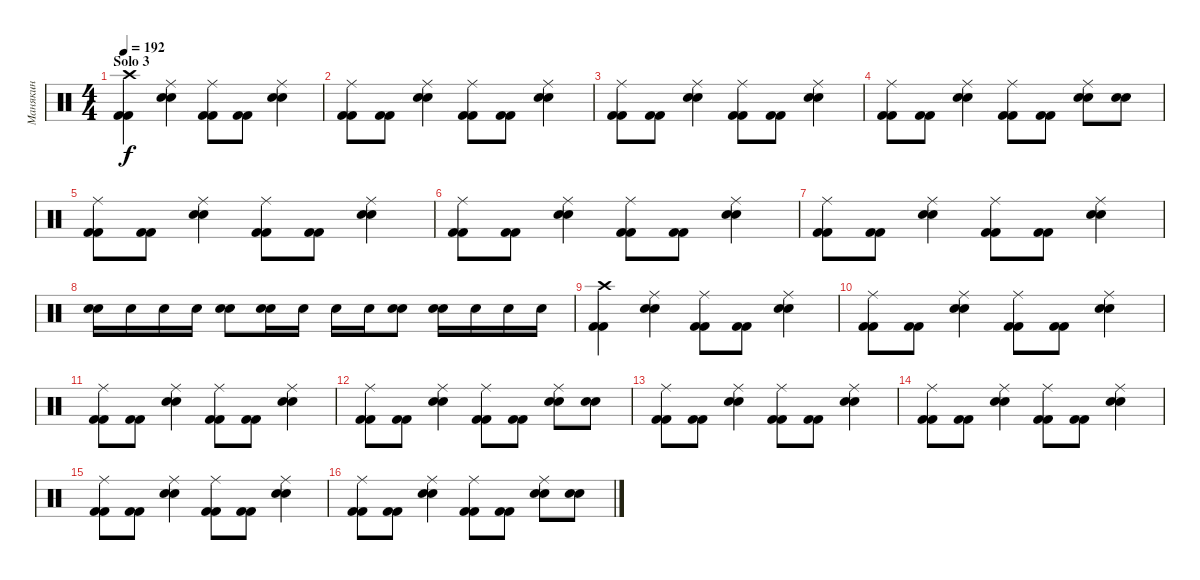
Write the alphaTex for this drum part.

\track ("Манякин" "Манякин") {instrument percussion}
\staff {score}
\articulation defaults
\ts (4 4)
\section ("" "Solo 3")
\tempo 192
\clef neutral
\ks c
("Crash high (hit)" "Kick (hit) 2" "Kick (hit) 2").4{dy f} ("Ride (middle)" "Electric Snare (hit)" "Electric Snare (hit)").4 ("Ride (middle)" "Kick (hit) 2" "Kick (hit) 2").8 ("Kick (hit) 2" "Kick (hit) 2").8 ("Ride (middle)" "Electric Snare (hit)" "Electric Snare (hit)").4 |
("Ride (middle)" "Kick (hit) 2" "Kick (hit) 2").8 ("Kick (hit) 2" "Kick (hit) 2").8 ("Ride (middle)" "Electric Snare (hit)" "Electric Snare (hit)").4 ("Ride (middle)" "Kick (hit) 2" "Kick (hit) 2").8 ("Kick (hit) 2" "Kick (hit) 2").8 ("Ride (middle)" "Electric Snare (hit)" "Electric Snare (hit)").4 |
("Ride (middle)" "Kick (hit) 2" "Kick (hit) 2").8 ("Kick (hit) 2" "Kick (hit) 2").8 ("Ride (middle)" "Electric Snare (hit)" "Electric Snare (hit)").4 ("Ride (middle)" "Kick (hit) 2" "Kick (hit) 2").8 ("Kick (hit) 2" "Kick (hit) 2").8 ("Ride (middle)" "Electric Snare (hit)" "Electric Snare (hit)").4 |
("Ride (middle)" "Kick (hit) 2" "Kick (hit) 2").8 ("Kick (hit) 2" "Kick (hit) 2").8 ("Ride (middle)" "Electric Snare (hit)" "Electric Snare (hit)").4 ("Ride (middle)" "Kick (hit) 2" "Kick (hit) 2").8 ("Kick (hit) 2" "Kick (hit) 2").8 ("Ride (middle)" "Electric Snare (hit)" "Electric Snare (hit)").8 ("Electric Snare (hit)" "Electric Snare (hit)").8 |
("Ride (middle)" "Kick (hit) 2" "Kick (hit) 2").8 ("Kick (hit) 2" "Kick (hit) 2").8 ("Ride (middle)" "Electric Snare (hit)" "Electric Snare (hit)").4 ("Ride (middle)" "Kick (hit) 2" "Kick (hit) 2").8 ("Kick (hit) 2" "Kick (hit) 2").8 ("Ride (middle)" "Electric Snare (hit)" "Electric Snare (hit)").4 |
("Ride (middle)" "Kick (hit) 2" "Kick (hit) 2").8 ("Kick (hit) 2" "Kick (hit) 2").8 ("Ride (middle)" "Electric Snare (hit)" "Electric Snare (hit)").4 ("Ride (middle)" "Kick (hit) 2" "Kick (hit) 2").8 ("Kick (hit) 2" "Kick (hit) 2").8 ("Ride (middle)" "Electric Snare (hit)" "Electric Snare (hit)").4 |
("Ride (middle)" "Kick (hit) 2" "Kick (hit) 2").8 ("Kick (hit) 2" "Kick (hit) 2").8 ("Ride (middle)" "Electric Snare (hit)" "Electric Snare (hit)").4 ("Ride (middle)" "Kick (hit) 2" "Kick (hit) 2").8 ("Kick (hit) 2" "Kick (hit) 2").8 ("Ride (middle)" "Electric Snare (hit)" "Electric Snare (hit)").4 |
("Electric Snare (hit)" "Electric Snare (hit)").16 "Electric Snare (hit)".16 "Electric Snare (hit)".16 "Electric Snare (hit)".16 ("Electric Snare (hit)" "Electric Snare (hit)").8 ("Electric Snare (hit)" "Electric Snare (hit)").16 "Electric Snare (hit)".16 "Electric Snare (hit)".16 "Electric Snare (hit)".16 ("Electric Snare (hit)" "Electric Snare (hit)").8 ("Electric Snare (hit)" "Electric Snare (hit)").16 "Electric Snare (hit)".16 "Electric Snare (hit)".16 "Electric Snare (hit)".16 |
("Crash high (hit)" "Kick (hit) 2" "Kick (hit) 2").4 ("Ride (middle)" "Electric Snare (hit)" "Electric Snare (hit)").4 ("Ride (middle)" "Kick (hit) 2" "Kick (hit) 2").8 ("Kick (hit) 2" "Kick (hit) 2").8 ("Ride (middle)" "Electric Snare (hit)" "Electric Snare (hit)").4 |
("Ride (middle)" "Kick (hit) 2" "Kick (hit) 2").8 ("Kick (hit) 2" "Kick (hit) 2").8 ("Ride (middle)" "Electric Snare (hit)" "Electric Snare (hit)").4 ("Ride (middle)" "Kick (hit) 2" "Kick (hit) 2").8 ("Kick (hit) 2" "Kick (hit) 2").8 ("Ride (middle)" "Electric Snare (hit)" "Electric Snare (hit)").4 |
("Ride (middle)" "Kick (hit) 2" "Kick (hit) 2").8 ("Kick (hit) 2" "Kick (hit) 2").8 ("Ride (middle)" "Electric Snare (hit)" "Electric Snare (hit)").4 ("Ride (middle)" "Kick (hit) 2" "Kick (hit) 2").8 ("Kick (hit) 2" "Kick (hit) 2").8 ("Ride (middle)" "Electric Snare (hit)" "Electric Snare (hit)").4 |
("Ride (middle)" "Kick (hit) 2" "Kick (hit) 2").8 ("Kick (hit) 2" "Kick (hit) 2").8 ("Ride (middle)" "Electric Snare (hit)" "Electric Snare (hit)").4 ("Ride (middle)" "Kick (hit) 2" "Kick (hit) 2").8 ("Kick (hit) 2" "Kick (hit) 2").8 ("Ride (middle)" "Electric Snare (hit)" "Electric Snare (hit)").8 ("Electric Snare (hit)" "Electric Snare (hit)").8 |
("Ride (middle)" "Kick (hit) 2" "Kick (hit) 2").8 ("Kick (hit) 2" "Kick (hit) 2").8 ("Ride (middle)" "Electric Snare (hit)" "Electric Snare (hit)").4 ("Ride (middle)" "Kick (hit) 2" "Kick (hit) 2").8 ("Kick (hit) 2" "Kick (hit) 2").8 ("Ride (middle)" "Electric Snare (hit)" "Electric Snare (hit)").4 |
("Ride (middle)" "Kick (hit) 2" "Kick (hit) 2").8 ("Kick (hit) 2" "Kick (hit) 2").8 ("Ride (middle)" "Electric Snare (hit)" "Electric Snare (hit)").4 ("Ride (middle)" "Kick (hit) 2" "Kick (hit) 2").8 ("Kick (hit) 2" "Kick (hit) 2").8 ("Ride (middle)" "Electric Snare (hit)" "Electric Snare (hit)").4 |
("Ride (middle)" "Kick (hit) 2" "Kick (hit) 2").8 ("Kick (hit) 2" "Kick (hit) 2").8 ("Ride (middle)" "Electric Snare (hit)" "Electric Snare (hit)").4 ("Ride (middle)" "Kick (hit) 2" "Kick (hit) 2").8 ("Kick (hit) 2" "Kick (hit) 2").8 ("Ride (middle)" "Electric Snare (hit)" "Electric Snare (hit)").4 |
("Ride (middle)" "Kick (hit) 2" "Kick (hit) 2").8 ("Kick (hit) 2" "Kick (hit) 2").8 ("Ride (middle)" "Electric Snare (hit)" "Electric Snare (hit)").4 ("Ride (middle)" "Kick (hit) 2" "Kick (hit) 2").8 ("Kick (hit) 2" "Kick (hit) 2").8 ("Ride (middle)" "Electric Snare (hit)" "Electric Snare (hit)").8 ("Electric Snare (hit)" "Electric Snare (hit)").8
